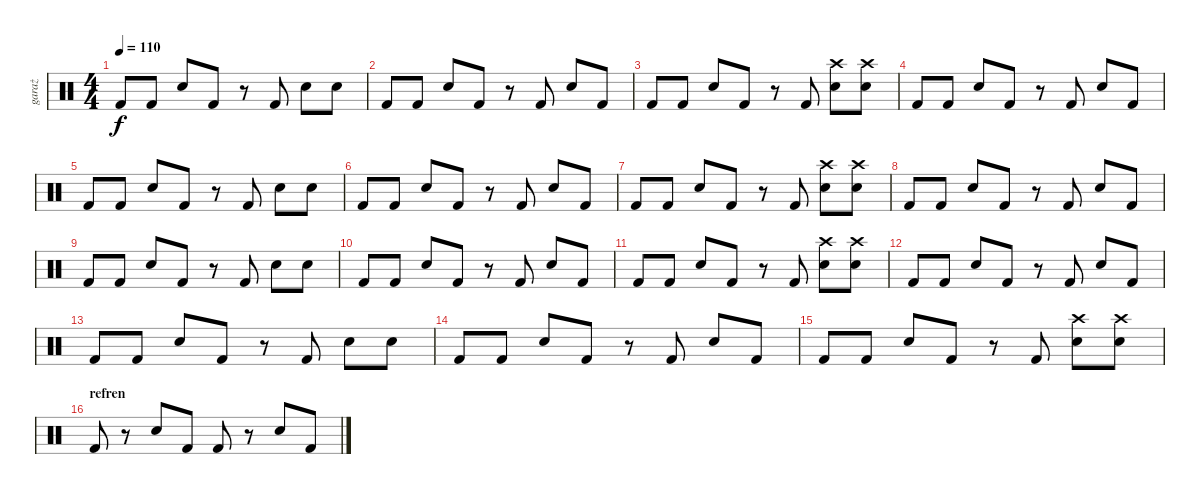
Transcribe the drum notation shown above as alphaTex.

\track ("garaż" "garaż") {instrument percussion}
\staff {score}
\articulation defaults
\ts (4 4)
\tempo 110
\clef neutral
\ks c "Kick (hit) 2".8{dy f} "Kick (hit) 2".8 "Snare (hit) 2".8 "Kick (hit) 2".8
r.8 "Kick (hit) 2".8 "Snare (hit) 2".8 "Snare (hit) 2".8 |
"Kick (hit) 2".8 "Kick (hit) 2".8 "Snare (hit) 2".8 "Kick (hit) 2".8 r.8 "Kick (hit) 2".8 "Snare (hit) 2".8 "Kick (hit) 2".8 |
"Kick (hit) 2".8 "Kick (hit) 2".8 "Snare (hit) 2".8 "Kick (hit) 2".8 r.8 "Kick (hit) 2".8 ("Crash high (hit)" "Snare (hit) 2").8 ("Crash high (hit)" "Snare (hit) 2").8 |
"Kick (hit) 2".8 "Kick (hit) 2".8 "Snare (hit) 2".8 "Kick (hit) 2".8 r.8 "Kick (hit) 2".8 "Snare (hit) 2".8 "Kick (hit) 2".8 |
"Kick (hit) 2".8 "Kick (hit) 2".8 "Snare (hit) 2".8 "Kick (hit) 2".8 r.8 "Kick (hit) 2".8 "Snare (hit) 2".8 "Snare (hit) 2".8 |
"Kick (hit) 2".8 "Kick (hit) 2".8 "Snare (hit) 2".8 "Kick (hit) 2".8 r.8 "Kick (hit) 2".8 "Snare (hit) 2".8 "Kick (hit) 2".8 |
"Kick (hit) 2".8 "Kick (hit) 2".8 "Snare (hit) 2".8 "Kick (hit) 2".8 r.8 "Kick (hit) 2".8 ("Crash high (hit)" "Snare (hit) 2").8 ("Crash high (hit)" "Snare (hit) 2").8 |
"Kick (hit) 2".8 "Kick (hit) 2".8 "Snare (hit) 2".8 "Kick (hit) 2".8 r.8 "Kick (hit) 2".8 "Snare (hit) 2".8 "Kick (hit) 2".8 |
"Kick (hit) 2".8 "Kick (hit) 2".8 "Snare (hit) 2".8 "Kick (hit) 2".8 r.8 "Kick (hit) 2".8 "Snare (hit) 2".8 "Snare (hit) 2".8 |
"Kick (hit) 2".8 "Kick (hit) 2".8 "Snare (hit) 2".8 "Kick (hit) 2".8 r.8 "Kick (hit) 2".8 "Snare (hit) 2".8 "Kick (hit) 2".8 |
"Kick (hit) 2".8 "Kick (hit) 2".8 "Snare (hit) 2".8 "Kick (hit) 2".8 r.8 "Kick (hit) 2".8 ("Crash high (hit)" "Snare (hit) 2").8 ("Crash high (hit)" "Snare (hit) 2").8 |
"Kick (hit) 2".8 "Kick (hit) 2".8 "Snare (hit) 2".8 "Kick (hit) 2".8 r.8 "Kick (hit) 2".8 "Snare (hit) 2".8 "Kick (hit) 2".8 |
"Kick (hit) 2".8 "Kick (hit) 2".8 "Snare (hit) 2".8 "Kick (hit) 2".8 r.8 "Kick (hit) 2".8 "Snare (hit) 2".8 "Snare (hit) 2".8 |
"Kick (hit) 2".8 "Kick (hit) 2".8 "Snare (hit) 2".8 "Kick (hit) 2".8 r.8 "Kick (hit) 2".8 "Snare (hit) 2".8 "Kick (hit) 2".8 |
"Kick (hit) 2".8 "Kick (hit) 2".8 "Snare (hit) 2".8 "Kick (hit) 2".8 r.8 "Kick (hit) 2".8 ("Crash high (hit)" "Snare (hit) 2").8 ("Crash high (hit)" "Snare (hit) 2").8 |
\section ("" "refren")
"Kick (hit) 2".8 r.8 "Snare (hit) 2".8 "Kick (hit) 2".8 "Kick (hit) 2".8 r.8 "Snare (hit) 2".8 "Kick (hit) 2".8
